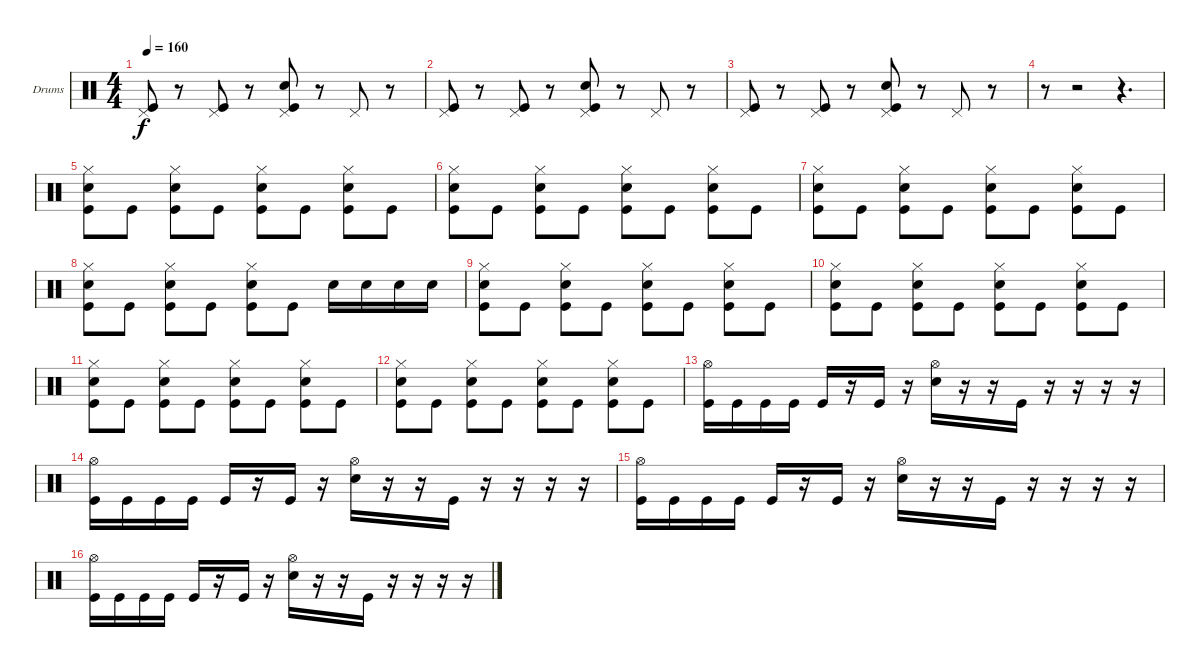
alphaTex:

\defaultSystemsLayout 4
\bracketExtendMode groupsimilarinstruments
\firstSystemTrackNameOrientation horizontal
\otherSystemsTrackNameOrientation horizontal
\track ("Drumkit" "Drums") {solo instrument percussion}
\staff {score}
\articulation defaults
\ts (4 4)
\tempo 160
\clef neutral
\ks c
("Pedal Hi-Hat (hit)" "Kick (hit)").8{dy f} r.8 ("Pedal Hi-Hat (hit)" "Kick (hit)").8 r.8 ("Pedal Hi-Hat (hit)" "Snare (hit) 2" "Kick (hit)").8 r.8 "Pedal Hi-Hat (hit)".8 r.8 |
("Pedal Hi-Hat (hit)" "Kick (hit)").8 r.8 ("Pedal Hi-Hat (hit)" "Kick (hit)").8 r.8 ("Pedal Hi-Hat (hit)" "Snare (hit) 2" "Kick (hit)").8 r.8 "Pedal Hi-Hat (hit)".8 r.8 |
("Pedal Hi-Hat (hit)" "Kick (hit)").8 r.8 ("Pedal Hi-Hat (hit)" "Kick (hit)").8 r.8 ("Pedal Hi-Hat (hit)" "Snare (hit) 2" "Kick (hit)").8 r.8 "Pedal Hi-Hat (hit)".8 r.8 |
r.8 r.2 r.4{d} |
("Hi-Hat (closed)" "Snare (hit) 2" "Kick (hit)").8 "Kick (hit)".8 ("Hi-Hat (closed)" "Snare (hit) 2" "Kick (hit)").8 "Kick (hit)".8 ("Hi-Hat (closed)" "Snare (hit) 2" "Kick (hit)").8 "Kick (hit)".8 ("Hi-Hat (closed)" "Snare (hit) 2" "Kick (hit)").8 "Kick (hit)".8 |
("Hi-Hat (closed)" "Snare (hit) 2" "Kick (hit)").8 "Kick (hit)".8 ("Hi-Hat (closed)" "Snare (hit) 2" "Kick (hit)").8 "Kick (hit)".8 ("Hi-Hat (closed)" "Snare (hit) 2" "Kick (hit)").8 "Kick (hit)".8 ("Hi-Hat (closed)" "Snare (hit) 2" "Kick (hit)").8 "Kick (hit)".8 |
("Hi-Hat (closed)" "Snare (hit) 2" "Kick (hit)").8 "Kick (hit)".8 ("Hi-Hat (closed)" "Snare (hit) 2" "Kick (hit)").8 "Kick (hit)".8 ("Hi-Hat (closed)" "Snare (hit) 2" "Kick (hit)").8 "Kick (hit)".8 ("Hi-Hat (closed)" "Snare (hit) 2" "Kick (hit)").8 "Kick (hit)".8 |
("Hi-Hat (closed)" "Snare (hit) 2" "Kick (hit)").8 "Kick (hit)".8 ("Hi-Hat (closed)" "Snare (hit) 2" "Kick (hit)").8 "Kick (hit)".8 ("Hi-Hat (closed)" "Snare (hit) 2" "Kick (hit)").8 "Kick (hit)".8 "Snare (hit) 2".16 "Snare (hit) 2".16 "Snare (hit) 2".16 "Snare (hit) 2".16 |
("Hi-Hat (closed)" "Snare (hit) 2" "Kick (hit)").8 "Kick (hit)".8 ("Hi-Hat (closed)" "Snare (hit) 2" "Kick (hit)").8 "Kick (hit)".8 ("Hi-Hat (closed)" "Snare (hit) 2" "Kick (hit)").8 "Kick (hit)".8 ("Hi-Hat (closed)" "Snare (hit) 2" "Kick (hit)").8 "Kick (hit)".8 |
("Hi-Hat (closed)" "Snare (hit) 2" "Kick (hit)").8 "Kick (hit)".8 ("Hi-Hat (closed)" "Snare (hit) 2" "Kick (hit)").8 "Kick (hit)".8 ("Hi-Hat (closed)" "Snare (hit) 2" "Kick (hit)").8 "Kick (hit)".8 ("Hi-Hat (closed)" "Snare (hit) 2" "Kick (hit)").8 "Kick (hit)".8 |
("Hi-Hat (closed)" "Snare (hit) 2" "Kick (hit)").8 "Kick (hit)".8 ("Hi-Hat (closed)" "Snare (hit) 2" "Kick (hit)").8 "Kick (hit)".8 ("Hi-Hat (closed)" "Snare (hit) 2" "Kick (hit)").8 "Kick (hit)".8 ("Hi-Hat (closed)" "Snare (hit) 2" "Kick (hit)").8 "Kick (hit)".8 |
("Hi-Hat (closed)" "Snare (hit) 2" "Kick (hit)").8 "Kick (hit)".8 ("Hi-Hat (closed)" "Snare (hit) 2" "Kick (hit)").8 "Kick (hit)".8 ("Hi-Hat (closed)" "Snare (hit) 2" "Kick (hit)").8 "Kick (hit)".8 ("Hi-Hat (closed)" "Snare (hit) 2" "Kick (hit)").8 "Kick (hit)".8 |
("Hi-Hat (open)" "Kick (hit)").16 "Kick (hit)".16 "Kick (hit)".16 "Kick (hit)".16 "Kick (hit)".16 r.16 "Kick (hit)".16 r.16 ("Hi-Hat (open)" "Snare (hit) 2").16 r.16 r.16 "Kick (hit)".16 r.16 r.16 r.16 r.16 |
("Hi-Hat (open)" "Kick (hit)").16 "Kick (hit)".16 "Kick (hit)".16 "Kick (hit)".16 "Kick (hit)".16 r.16 "Kick (hit)".16 r.16 ("Hi-Hat (open)" "Snare (hit) 2").16 r.16 r.16 "Kick (hit)".16 r.16 r.16 r.16 r.16 |
("Hi-Hat (open)" "Kick (hit)").16 "Kick (hit)".16 "Kick (hit)".16 "Kick (hit)".16 "Kick (hit)".16 r.16 "Kick (hit)".16 r.16 ("Hi-Hat (open)" "Snare (hit) 2").16 r.16 r.16 "Kick (hit)".16 r.16 r.16 r.16 r.16 |
("Hi-Hat (open)" "Kick (hit)").16 "Kick (hit)".16 "Kick (hit)".16 "Kick (hit)".16 "Kick (hit)".16 r.16 "Kick (hit)".16 r.16 ("Hi-Hat (open)" "Snare (hit) 2").16 r.16 r.16 "Kick (hit)".16 r.16 r.16 r.16 r.16
